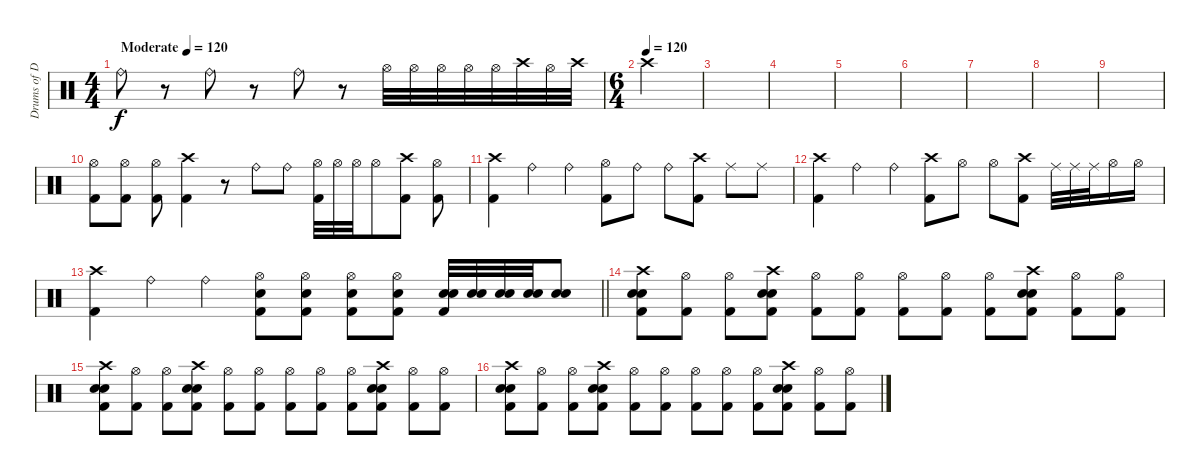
\track ("Drums of Doom" "Drums of D") {instrument percussion}
\staff {score}
\articulation defaults
\ts (4 4)
\tempo (120 "Moderate")
\tempo 60
\tempo (120 "Moderate")
\clef neutral
\ks c "Ride (bell)".8{dy f}
r.8 "Ride (bell)".8 r.8 "Ride (bell)".8 r.8 "Hi-Hat (open)".32 "Hi-Hat (open)".32 "Hi-Hat (open)".32 "Hi-Hat (open)".32 "Hi-Hat (open)".32 "Crash high (hit)".32 "Hi-Hat (open)".32 "Crash high (hit)".32 |
\ts (6 4)
\tempo (120)
"Crash high (hit)".4 |
|
|
|
|
|
|
|
("Hi-Hat (open)" "Kick (hit) 2").8 ("Hi-Hat (open)" "Kick (hit) 2").8 ("Hi-Hat (open)" "Kick (hit) 2").8 ("Crash high (hit)" "Kick (hit) 2").4 r.8 "Ride (bell)".8 "Ride (bell)".8 ("Hi-Hat (open)" "Kick (hit) 2").32 "Hi-Hat (open)".32 "Hi-Hat (open)".32 "Hi-Hat (open)".8 ("Crash high (hit)" "Kick (hit) 2").8 ("Hi-Hat (open)" "Kick (hit) 2").8 |
("Crash high (hit)" "Kick (hit) 2").4 "Ride (bell)".4 "Ride (bell)".4 ("Hi-Hat (open)" "Kick (hit) 2").8 "Ride (bell)".8 "Ride (bell)".8 ("Crash high (hit)" "Kick (hit) 2").8 "Ride (middle)".8 "Ride (middle)".8 |
("Crash high (hit)" "Kick (hit) 2").4 "Ride (bell)".4 "Ride (bell)".4 ("Crash high (hit)" "Kick (hit) 2").8 "Hi-Hat (open)".8 "Hi-Hat (open)".8 ("Crash high (hit)" "Kick (hit) 2").8 "Ride (middle)".32 "Ride (middle)".32 "Ride (middle)".32 "Hi-Hat (open)".16 "Hi-Hat (open)".16 |
\barLineRight lightlight
("Crash high (hit)" "Kick (hit) 2").4 "Ride (bell)".4 "Ride (bell)".4 ("Hi-Hat (open)" "Electric Snare (hit)" "Kick (hit) 2").8 ("Hi-Hat (open)" "Electric Snare (hit)" "Kick (hit) 2").8 ("Hi-Hat (open)" "Electric Snare (hit)" "Kick (hit) 2").8 ("Hi-Hat (open)" "Electric Snare (hit)" "Kick (hit) 2").8 ("Electric Snare (hit)" "Snare (hit) 2" "Kick (hit) 2").32 ("Electric Snare (hit)" "Snare (hit) 2").32 ("Electric Snare (hit)" "Snare (hit) 2").32 ("Electric Snare (hit)" "Snare (hit) 2").32 ("Electric Snare (hit)" "Snare (hit) 2").8 |
("Crash high (hit)" "Snare (hit) 2" "Electric Snare (hit)" "Kick (hit) 2").8 ("Hi-Hat (open)" "Kick (hit) 2").8 ("Hi-Hat (open)" "Kick (hit) 2").8 ("Crash high (hit)" "Snare (hit) 2" "Electric Snare (hit)" "Kick (hit) 2").8 ("Hi-Hat (open)" "Kick (hit) 2").8 ("Hi-Hat (open)" "Kick (hit) 2").8 ("Hi-Hat (open)" "Kick (hit) 2").8 ("Hi-Hat (open)" "Kick (hit) 2").8 ("Hi-Hat (open)" "Kick (hit) 2").8 ("Crash high (hit)" "Snare (hit) 2" "Electric Snare (hit)" "Kick (hit) 2").8 ("Hi-Hat (open)" "Kick (hit) 2").8 ("Hi-Hat (open)" "Kick (hit) 2").8 |
("Crash high (hit)" "Snare (hit) 2" "Electric Snare (hit)" "Kick (hit) 2").8 ("Hi-Hat (open)" "Kick (hit) 2").8 ("Hi-Hat (open)" "Kick (hit) 2").8 ("Crash high (hit)" "Snare (hit) 2" "Electric Snare (hit)" "Kick (hit) 2").8 ("Hi-Hat (open)" "Kick (hit) 2").8 ("Hi-Hat (open)" "Kick (hit) 2").8 ("Hi-Hat (open)" "Kick (hit) 2").8 ("Hi-Hat (open)" "Kick (hit) 2").8 ("Hi-Hat (open)" "Kick (hit) 2").8 ("Crash high (hit)" "Snare (hit) 2" "Electric Snare (hit)" "Kick (hit) 2").8 ("Hi-Hat (open)" "Kick (hit) 2").8 ("Hi-Hat (open)" "Kick (hit) 2").8 |
("Crash high (hit)" "Snare (hit) 2" "Electric Snare (hit)" "Kick (hit) 2").8 ("Hi-Hat (open)" "Kick (hit) 2").8 ("Hi-Hat (open)" "Kick (hit) 2").8 ("Crash high (hit)" "Snare (hit) 2" "Electric Snare (hit)" "Kick (hit) 2").8 ("Hi-Hat (open)" "Kick (hit) 2").8 ("Hi-Hat (open)" "Kick (hit) 2").8 ("Hi-Hat (open)" "Kick (hit) 2").8 ("Hi-Hat (open)" "Kick (hit) 2").8 ("Hi-Hat (open)" "Kick (hit) 2").8 ("Crash high (hit)" "Snare (hit) 2" "Electric Snare (hit)" "Kick (hit) 2").8 ("Hi-Hat (open)" "Kick (hit) 2").8 ("Hi-Hat (open)" "Kick (hit) 2").8
